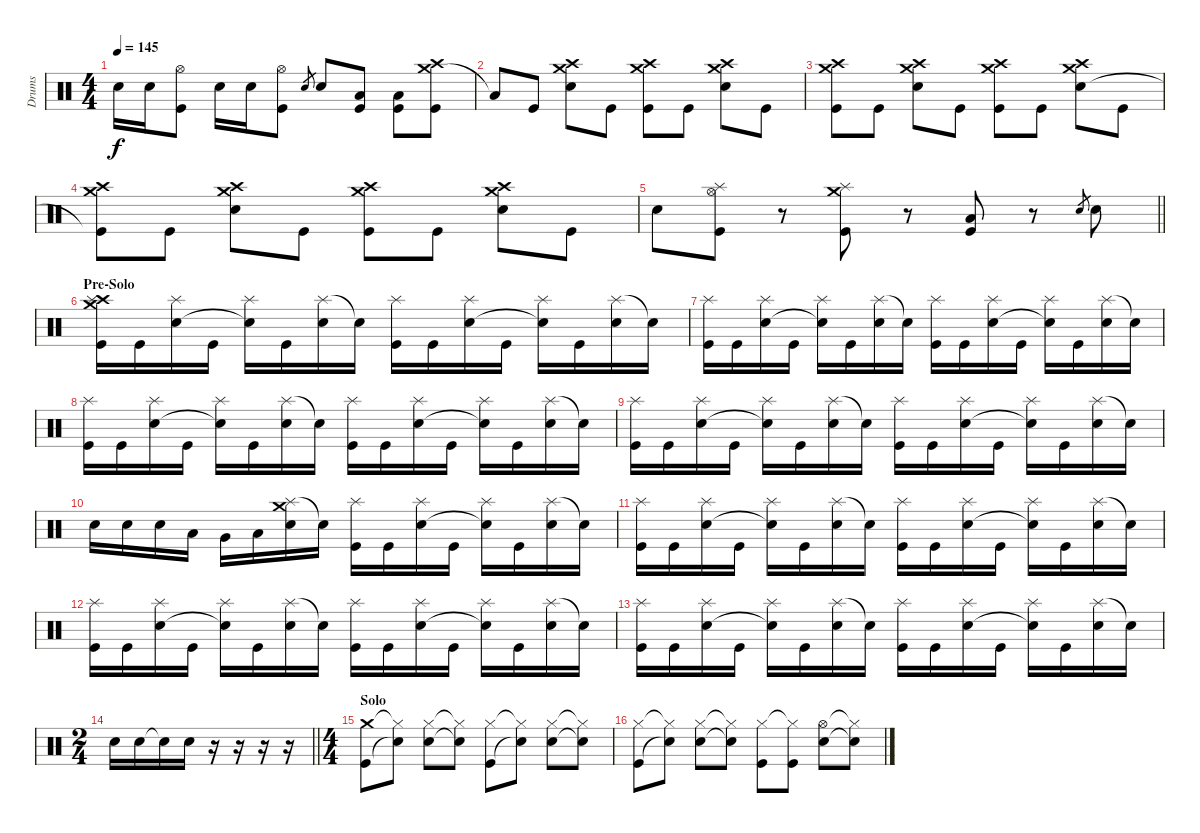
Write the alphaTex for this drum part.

\track ("Drums" "Drums") {instrument percussion}
\staff {score}
\articulation defaults
\ts (4 4)
\tempo 145
\clef neutral
\ks c "Electric Snare (hit)".16{dy f} "Electric Snare (hit)".16
("Hi-Hat (open)" "Kick (hit)").8 "Electric Snare (hit)".16 "Electric Snare (hit)".16 ("Hi-Hat (open)" "Kick (hit)").8 "Electric Snare (hit)".8{gr} "Electric Snare (hit)".8 ("Kick (hit)" "Low Floor Tom (hit)").8 ("Kick (hit)" "Low Floor Tom (hit)").8 ("Crash medium (hit)" "Crash high (hit)" "Kick (hit)").8 |
"Low Floor Tom (hit)"{t}.8 "Kick (hit)".8 ("Crash medium (hit)" "Crash high (hit)" "Electric Snare (hit)").8 "Kick (hit)".8 ("Crash medium (hit)" "Crash high (hit)" "Kick (hit)").8 "Kick (hit)".8 ("Crash medium (hit)" "Crash high (hit)" "Electric Snare (hit)").8 "Kick (hit)".8 |
("Crash medium (hit)" "Crash high (hit)" "Kick (hit)").8 "Kick (hit)".8 ("Crash medium (hit)" "Crash high (hit)" "Electric Snare (hit)").8 "Kick (hit)".8 ("Crash medium (hit)" "Crash high (hit)" "Kick (hit)").8 "Kick (hit)".8 ("Crash medium (hit)" "Crash high (hit)" "Electric Snare (hit)").8 "Kick (hit)".8 |
("Crash medium (hit)" "Crash high (hit)" "Kick (hit)"{t}).8 "Kick (hit)".8 ("Crash medium (hit)" "Crash high (hit)" "Electric Snare (hit)").8 "Kick (hit)".8 ("Crash medium (hit)" "Crash high (hit)" "Kick (hit)").8 "Kick (hit)".8 ("Crash medium (hit)" "Crash high (hit)" "Electric Snare (hit)").8 "Kick (hit)".8 |
\barLineRight lightlight "Electric Snare (hit)".8
("Hi-Hat (open)" "Splash (hit)" "Kick (hit)").8 r.8 ("Crash medium (hit)" "Splash (hit)" "Kick (hit)").8 r.8 ("Low Floor Tom (hit)" "Kick (hit)").8 r.8 "Electric Snare (hit)".8{gr} "Electric Snare (hit)".8 |
\section ("" "Pre-Solo")
("Crash medium (hit)" "Crash high (hit)" "Splash (hit)" "Kick (hit)").16 "Kick (hit)".16 ("Splash (hit)" "Electric Snare (hit)").16 "Kick (hit)".16 ("Splash (hit)" "Snare (hit)"{t}).16 "Kick (hit)".16 ("Splash (hit)" "Electric Snare (hit)").16 "Snare (hit)"{t}.16 ("Splash (hit)" "Kick (hit)").16 "Kick (hit)".16 ("Splash (hit)" "Electric Snare (hit)").16 "Kick (hit)".16 ("Splash (hit)" "Snare (hit)"{t}).16 "Kick (hit)".16 ("Splash (hit)" "Electric Snare (hit)").16 "Snare (hit)"{t}.16 |
("Splash (hit)" "Kick (hit)").16 "Kick (hit)".16 ("Splash (hit)" "Electric Snare (hit)").16 "Kick (hit)".16 ("Splash (hit)" "Snare (hit)"{t}).16 "Kick (hit)".16 ("Splash (hit)" "Electric Snare (hit)").16 "Snare (hit)"{t}.16 ("Splash (hit)" "Kick (hit)").16 "Kick (hit)".16 ("Splash (hit)" "Electric Snare (hit)").16 "Kick (hit)".16 ("Splash (hit)" "Snare (hit)"{t}).16 "Kick (hit)".16 ("Splash (hit)" "Electric Snare (hit)").16 "Snare (hit)"{t}.16 |
("Splash (hit)" "Kick (hit)").16 "Kick (hit)".16 ("Splash (hit)" "Electric Snare (hit)").16 "Kick (hit)".16 ("Splash (hit)" "Snare (hit)"{t}).16 "Kick (hit)".16 ("Splash (hit)" "Electric Snare (hit)").16 "Snare (hit)"{t}.16 ("Splash (hit)" "Kick (hit)").16 "Kick (hit)".16 ("Splash (hit)" "Electric Snare (hit)").16 "Kick (hit)".16 ("Splash (hit)" "Snare (hit)"{t}).16 "Kick (hit)".16 ("Splash (hit)" "Electric Snare (hit)").16 "Snare (hit)"{t}.16 |
("Splash (hit)" "Kick (hit)").16 "Kick (hit)".16 ("Splash (hit)" "Electric Snare (hit)").16 "Kick (hit)".16 ("Splash (hit)" "Snare (hit)"{t}).16 "Kick (hit)".16 ("Splash (hit)" "Electric Snare (hit)").16 "Snare (hit)"{t}.16 ("Splash (hit)" "Kick (hit)").16 "Kick (hit)".16 ("Splash (hit)" "Electric Snare (hit)").16 "Kick (hit)".16 ("Splash (hit)" "Snare (hit)"{t}).16 "Kick (hit)".16 ("Splash (hit)" "Electric Snare (hit)").16 "Snare (hit)"{t}.16 |
"Electric Snare (hit)".16 "Electric Snare (hit)".16 "Electric Snare (hit)".16 "Low Tom (hit)".16 "Very Low Tom (hit)".16 "Low Floor Tom (hit)".16 ("Splash (hit)" "Crash medium (hit)" "Electric Snare (hit)").16 "Snare (hit)"{t}.16 ("Splash (hit)" "Kick (hit)").16 "Kick (hit)".16 ("Splash (hit)" "Electric Snare (hit)").16 "Kick (hit)".16 ("Splash (hit)" "Snare (hit)"{t}).16 "Kick (hit)".16 ("Splash (hit)" "Electric Snare (hit)").16 "Snare (hit)"{t}.16 |
("Splash (hit)" "Kick (hit)").16 "Kick (hit)".16 ("Splash (hit)" "Electric Snare (hit)").16 "Kick (hit)".16 ("Splash (hit)" "Snare (hit)"{t}).16 "Kick (hit)".16 ("Splash (hit)" "Electric Snare (hit)").16 "Snare (hit)"{t}.16 ("Splash (hit)" "Kick (hit)").16 "Kick (hit)".16 ("Splash (hit)" "Electric Snare (hit)").16 "Kick (hit)".16 ("Splash (hit)" "Snare (hit)"{t}).16 "Kick (hit)".16 ("Splash (hit)" "Electric Snare (hit)").16 "Snare (hit)"{t}.16 |
("Splash (hit)" "Kick (hit)").16 "Kick (hit)".16 ("Splash (hit)" "Electric Snare (hit)").16 "Kick (hit)".16 ("Splash (hit)" "Snare (hit)"{t}).16 "Kick (hit)".16 ("Splash (hit)" "Electric Snare (hit)").16 "Snare (hit)"{t}.16 ("Splash (hit)" "Kick (hit)").16 "Kick (hit)".16 ("Splash (hit)" "Electric Snare (hit)").16 "Kick (hit)".16 ("Splash (hit)" "Snare (hit)"{t}).16 "Kick (hit)".16 ("Splash (hit)" "Electric Snare (hit)").16 "Snare (hit)"{t}.16 |
("Splash (hit)" "Kick (hit)").16 "Kick (hit)".16 ("Splash (hit)" "Electric Snare (hit)").16 "Kick (hit)".16 ("Splash (hit)" "Snare (hit)"{t}).16 "Kick (hit)".16 ("Splash (hit)" "Electric Snare (hit)").16 "Snare (hit)"{t}.16 ("Splash (hit)" "Kick (hit)").16 "Kick (hit)".16 ("Splash (hit)" "Electric Snare (hit)").16 "Kick (hit)".16 ("Splash (hit)" "Snare (hit)"{t}).16 "Kick (hit)".16 ("Splash (hit)" "Electric Snare (hit)").16 "Snare (hit)"{t}.16 |
\ts (2 4)
\barLineRight lightlight "Electric Snare (hit)".16 "Electric Snare (hit)".16 "Snare (hit)"{t}.16 "Electric Snare (hit)".16
r.16 r.16 r.16 r.16 |
\ts (4 4)
\section ("" "Solo")
("Crash medium (hit)" "Kick (hit)").8 ("Hi-Hat (closed)"{t} "Electric Snare (hit)"{t}).8 ("Hi-Hat (closed)" "Electric Snare (hit)").8 ("Hi-Hat (closed)"{t} "Electric Snare (hit)"{t}).8 ("Hi-Hat (closed)" "Kick (hit)").8 ("Hi-Hat (closed)"{t} "Electric Snare (hit)"{t}).8 ("Hi-Hat (closed)" "Electric Snare (hit)").8 ("Hi-Hat (closed)"{t} "Electric Snare (hit)"{t}).8 |
("Hi-Hat (closed)" "Kick (hit)").8 ("Hi-Hat (closed)"{t} "Electric Snare (hit)"{t}).8 ("Hi-Hat (closed)" "Electric Snare (hit)").8 ("Hi-Hat (closed)"{t} "Electric Snare (hit)"{t}).8 ("Hi-Hat (closed)" "Kick (hit)").8 ("Hi-Hat (closed)"{t} "Kick (hit)").8 ("Hi-Hat (open)" "Electric Snare (hit)").8 ("Hi-Hat (closed)"{t} "Electric Snare (hit)"{t}).8
